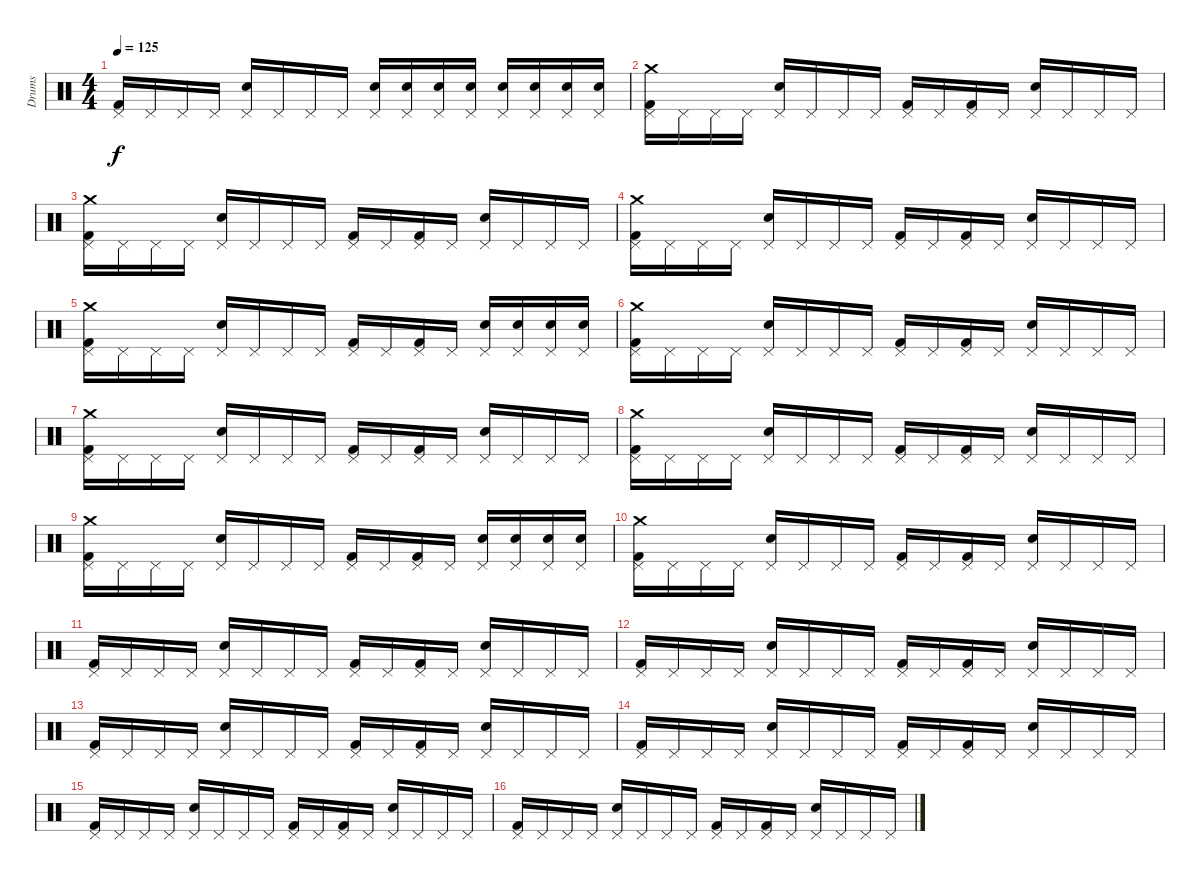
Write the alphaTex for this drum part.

\track ("Drums" "Drums") {instrument percussion}
\staff {score}
\articulation defaults
\ts (4 4)
\tempo 125
\clef neutral
\ks c
("Kick (hit) 2" "Pedal Hi-Hat (hit)").16{dy f} "Pedal Hi-Hat (hit)".16 "Pedal Hi-Hat (hit)".16 "Pedal Hi-Hat (hit)".16 ("Snare (hit) 2" "Pedal Hi-Hat (hit)").16 "Pedal Hi-Hat (hit)".16 "Pedal Hi-Hat (hit)".16 "Pedal Hi-Hat (hit)".16 ("Snare (hit) 2" "Pedal Hi-Hat (hit)").16 ("Snare (hit) 2" "Pedal Hi-Hat (hit)").16 ("Snare (hit) 2" "Pedal Hi-Hat (hit)").16 ("Snare (hit) 2" "Pedal Hi-Hat (hit)").16 ("Snare (hit) 2" "Pedal Hi-Hat (hit)").16 ("Snare (hit) 2" "Pedal Hi-Hat (hit)").16 ("Snare (hit) 2" "Pedal Hi-Hat (hit)").16 ("Snare (hit) 2" "Pedal Hi-Hat (hit)").16 |
("Kick (hit) 2" "Crash medium (hit)" "Pedal Hi-Hat (hit)").16 "Pedal Hi-Hat (hit)".16 "Pedal Hi-Hat (hit)".16 "Pedal Hi-Hat (hit)".16 ("Snare (hit) 2" "Pedal Hi-Hat (hit)").16 "Pedal Hi-Hat (hit)".16 "Pedal Hi-Hat (hit)".16 "Pedal Hi-Hat (hit)".16 ("Kick (hit) 2" "Pedal Hi-Hat (hit)").16 "Pedal Hi-Hat (hit)".16 ("Kick (hit) 2" "Pedal Hi-Hat (hit)").16 "Pedal Hi-Hat (hit)".16 ("Snare (hit) 2" "Pedal Hi-Hat (hit)").16 "Pedal Hi-Hat (hit)".16 "Pedal Hi-Hat (hit)".16 "Pedal Hi-Hat (hit)".16 |
("Pedal Hi-Hat (hit)" "Crash medium (hit)" "Kick (hit) 2").16 "Pedal Hi-Hat (hit)".16 "Pedal Hi-Hat (hit)".16 "Pedal Hi-Hat (hit)".16 ("Pedal Hi-Hat (hit)" "Snare (hit) 2").16 "Pedal Hi-Hat (hit)".16 "Pedal Hi-Hat (hit)".16 "Pedal Hi-Hat (hit)".16 ("Pedal Hi-Hat (hit)" "Kick (hit) 2").16 "Pedal Hi-Hat (hit)".16 ("Pedal Hi-Hat (hit)" "Kick (hit) 2").16 "Pedal Hi-Hat (hit)".16 ("Pedal Hi-Hat (hit)" "Snare (hit) 2").16 "Pedal Hi-Hat (hit)".16 "Pedal Hi-Hat (hit)".16 "Pedal Hi-Hat (hit)".16 |
("Crash medium (hit)" "Pedal Hi-Hat (hit)" "Kick (hit) 2").16 "Pedal Hi-Hat (hit)".16 "Pedal Hi-Hat (hit)".16 "Pedal Hi-Hat (hit)".16 ("Pedal Hi-Hat (hit)" "Snare (hit) 2").16 "Pedal Hi-Hat (hit)".16 "Pedal Hi-Hat (hit)".16 "Pedal Hi-Hat (hit)".16 ("Pedal Hi-Hat (hit)" "Kick (hit) 2").16 "Pedal Hi-Hat (hit)".16 ("Pedal Hi-Hat (hit)" "Kick (hit) 2").16 "Pedal Hi-Hat (hit)".16 ("Pedal Hi-Hat (hit)" "Snare (hit) 2").16 "Pedal Hi-Hat (hit)".16 "Pedal Hi-Hat (hit)".16 "Pedal Hi-Hat (hit)".16 |
("Crash medium (hit)" "Pedal Hi-Hat (hit)" "Kick (hit) 2").16 "Pedal Hi-Hat (hit)".16 "Pedal Hi-Hat (hit)".16 "Pedal Hi-Hat (hit)".16 ("Pedal Hi-Hat (hit)" "Snare (hit) 2").16 "Pedal Hi-Hat (hit)".16 "Pedal Hi-Hat (hit)".16 "Pedal Hi-Hat (hit)".16 ("Pedal Hi-Hat (hit)" "Kick (hit) 2").16 "Pedal Hi-Hat (hit)".16 ("Pedal Hi-Hat (hit)" "Kick (hit) 2").16 "Pedal Hi-Hat (hit)".16 ("Snare (hit) 2" "Pedal Hi-Hat (hit)").16 ("Snare (hit) 2" "Pedal Hi-Hat (hit)").16 ("Snare (hit) 2" "Pedal Hi-Hat (hit)").16 ("Snare (hit) 2" "Pedal Hi-Hat (hit)").16 |
("Crash medium (hit)" "Pedal Hi-Hat (hit)" "Kick (hit) 2").16 "Pedal Hi-Hat (hit)".16 "Pedal Hi-Hat (hit)".16 "Pedal Hi-Hat (hit)".16 ("Pedal Hi-Hat (hit)" "Snare (hit) 2").16 "Pedal Hi-Hat (hit)".16 "Pedal Hi-Hat (hit)".16 "Pedal Hi-Hat (hit)".16 ("Pedal Hi-Hat (hit)" "Kick (hit) 2").16 "Pedal Hi-Hat (hit)".16 ("Pedal Hi-Hat (hit)" "Kick (hit) 2").16 "Pedal Hi-Hat (hit)".16 ("Pedal Hi-Hat (hit)" "Snare (hit) 2").16 "Pedal Hi-Hat (hit)".16 "Pedal Hi-Hat (hit)".16 "Pedal Hi-Hat (hit)".16 |
("Crash medium (hit)" "Pedal Hi-Hat (hit)" "Kick (hit) 2").16 "Pedal Hi-Hat (hit)".16 "Pedal Hi-Hat (hit)".16 "Pedal Hi-Hat (hit)".16 ("Pedal Hi-Hat (hit)" "Snare (hit) 2").16 "Pedal Hi-Hat (hit)".16 "Pedal Hi-Hat (hit)".16 "Pedal Hi-Hat (hit)".16 ("Pedal Hi-Hat (hit)" "Kick (hit) 2").16 "Pedal Hi-Hat (hit)".16 ("Pedal Hi-Hat (hit)" "Kick (hit) 2").16 "Pedal Hi-Hat (hit)".16 ("Pedal Hi-Hat (hit)" "Snare (hit) 2").16 "Pedal Hi-Hat (hit)".16 "Pedal Hi-Hat (hit)".16 "Pedal Hi-Hat (hit)".16 |
("Crash medium (hit)" "Kick (hit) 2" "Pedal Hi-Hat (hit)").16 "Pedal Hi-Hat (hit)".16 "Pedal Hi-Hat (hit)".16 "Pedal Hi-Hat (hit)".16 ("Snare (hit) 2" "Pedal Hi-Hat (hit)").16 "Pedal Hi-Hat (hit)".16 "Pedal Hi-Hat (hit)".16 "Pedal Hi-Hat (hit)".16 ("Kick (hit) 2" "Pedal Hi-Hat (hit)").16 "Pedal Hi-Hat (hit)".16 ("Kick (hit) 2" "Pedal Hi-Hat (hit)").16 "Pedal Hi-Hat (hit)".16 ("Snare (hit) 2" "Pedal Hi-Hat (hit)").16 "Pedal Hi-Hat (hit)".16 "Pedal Hi-Hat (hit)".16 "Pedal Hi-Hat (hit)".16 |
("Crash medium (hit)" "Kick (hit) 2" "Pedal Hi-Hat (hit)").16 "Pedal Hi-Hat (hit)".16 "Pedal Hi-Hat (hit)".16 "Pedal Hi-Hat (hit)".16 ("Snare (hit) 2" "Pedal Hi-Hat (hit)").16 "Pedal Hi-Hat (hit)".16 "Pedal Hi-Hat (hit)".16 "Pedal Hi-Hat (hit)".16 ("Kick (hit) 2" "Pedal Hi-Hat (hit)").16 "Pedal Hi-Hat (hit)".16 ("Kick (hit) 2" "Pedal Hi-Hat (hit)").16 "Pedal Hi-Hat (hit)".16 ("Snare (hit) 2" "Pedal Hi-Hat (hit)").16 ("Snare (hit) 2" "Pedal Hi-Hat (hit)").16 ("Snare (hit) 2" "Pedal Hi-Hat (hit)").16 ("Snare (hit) 2" "Pedal Hi-Hat (hit)").16 |
("Crash medium (hit)" "Pedal Hi-Hat (hit)" "Kick (hit) 2").16 "Pedal Hi-Hat (hit)".16 "Pedal Hi-Hat (hit)".16 "Pedal Hi-Hat (hit)".16 ("Pedal Hi-Hat (hit)" "Snare (hit) 2").16 "Pedal Hi-Hat (hit)".16 "Pedal Hi-Hat (hit)".16 "Pedal Hi-Hat (hit)".16 ("Pedal Hi-Hat (hit)" "Kick (hit) 2").16 "Pedal Hi-Hat (hit)".16 ("Pedal Hi-Hat (hit)" "Kick (hit) 2").16 "Pedal Hi-Hat (hit)".16 ("Pedal Hi-Hat (hit)" "Snare (hit) 2").16 "Pedal Hi-Hat (hit)".16 "Pedal Hi-Hat (hit)".16 "Pedal Hi-Hat (hit)".16 |
("Pedal Hi-Hat (hit)" "Kick (hit) 2").16 "Pedal Hi-Hat (hit)".16 "Pedal Hi-Hat (hit)".16 "Pedal Hi-Hat (hit)".16 ("Pedal Hi-Hat (hit)" "Snare (hit) 2").16 "Pedal Hi-Hat (hit)".16 "Pedal Hi-Hat (hit)".16 "Pedal Hi-Hat (hit)".16 ("Pedal Hi-Hat (hit)" "Kick (hit) 2").16 "Pedal Hi-Hat (hit)".16 ("Pedal Hi-Hat (hit)" "Kick (hit) 2").16 "Pedal Hi-Hat (hit)".16 ("Pedal Hi-Hat (hit)" "Snare (hit) 2").16 "Pedal Hi-Hat (hit)".16 "Pedal Hi-Hat (hit)".16 "Pedal Hi-Hat (hit)".16 |
("Kick (hit) 2" "Pedal Hi-Hat (hit)").16 "Pedal Hi-Hat (hit)".16 "Pedal Hi-Hat (hit)".16 "Pedal Hi-Hat (hit)".16 ("Snare (hit) 2" "Pedal Hi-Hat (hit)").16 "Pedal Hi-Hat (hit)".16 "Pedal Hi-Hat (hit)".16 "Pedal Hi-Hat (hit)".16 ("Kick (hit) 2" "Pedal Hi-Hat (hit)").16 "Pedal Hi-Hat (hit)".16 ("Kick (hit) 2" "Pedal Hi-Hat (hit)").16 "Pedal Hi-Hat (hit)".16 ("Snare (hit) 2" "Pedal Hi-Hat (hit)").16 "Pedal Hi-Hat (hit)".16 "Pedal Hi-Hat (hit)".16 "Pedal Hi-Hat (hit)".16 |
("Kick (hit) 2" "Pedal Hi-Hat (hit)").16 "Pedal Hi-Hat (hit)".16 "Pedal Hi-Hat (hit)".16 "Pedal Hi-Hat (hit)".16 ("Snare (hit) 2" "Pedal Hi-Hat (hit)").16 "Pedal Hi-Hat (hit)".16 "Pedal Hi-Hat (hit)".16 "Pedal Hi-Hat (hit)".16 ("Kick (hit) 2" "Pedal Hi-Hat (hit)").16 "Pedal Hi-Hat (hit)".16 ("Kick (hit) 2" "Pedal Hi-Hat (hit)").16 "Pedal Hi-Hat (hit)".16 ("Snare (hit) 2" "Pedal Hi-Hat (hit)").16 "Pedal Hi-Hat (hit)".16 "Pedal Hi-Hat (hit)".16 "Pedal Hi-Hat (hit)".16 |
("Pedal Hi-Hat (hit)" "Kick (hit) 2").16 "Pedal Hi-Hat (hit)".16 "Pedal Hi-Hat (hit)".16 "Pedal Hi-Hat (hit)".16 ("Pedal Hi-Hat (hit)" "Snare (hit) 2").16 "Pedal Hi-Hat (hit)".16 "Pedal Hi-Hat (hit)".16 "Pedal Hi-Hat (hit)".16 ("Pedal Hi-Hat (hit)" "Kick (hit) 2").16 "Pedal Hi-Hat (hit)".16 ("Pedal Hi-Hat (hit)" "Kick (hit) 2").16 "Pedal Hi-Hat (hit)".16 ("Pedal Hi-Hat (hit)" "Snare (hit) 2").16 "Pedal Hi-Hat (hit)".16 "Pedal Hi-Hat (hit)".16 "Pedal Hi-Hat (hit)".16 |
("Pedal Hi-Hat (hit)" "Kick (hit) 2").16 "Pedal Hi-Hat (hit)".16 "Pedal Hi-Hat (hit)".16 "Pedal Hi-Hat (hit)".16 ("Pedal Hi-Hat (hit)" "Snare (hit) 2").16 "Pedal Hi-Hat (hit)".16 "Pedal Hi-Hat (hit)".16 "Pedal Hi-Hat (hit)".16 ("Pedal Hi-Hat (hit)" "Kick (hit) 2").16 "Pedal Hi-Hat (hit)".16 ("Pedal Hi-Hat (hit)" "Kick (hit) 2").16 "Pedal Hi-Hat (hit)".16 ("Pedal Hi-Hat (hit)" "Snare (hit) 2").16 "Pedal Hi-Hat (hit)".16 "Pedal Hi-Hat (hit)".16 "Pedal Hi-Hat (hit)".16 |
("Kick (hit) 2" "Pedal Hi-Hat (hit)").16 "Pedal Hi-Hat (hit)".16 "Pedal Hi-Hat (hit)".16 "Pedal Hi-Hat (hit)".16 ("Snare (hit) 2" "Pedal Hi-Hat (hit)").16 "Pedal Hi-Hat (hit)".16 "Pedal Hi-Hat (hit)".16 "Pedal Hi-Hat (hit)".16 ("Kick (hit) 2" "Pedal Hi-Hat (hit)").16 "Pedal Hi-Hat (hit)".16 ("Kick (hit) 2" "Pedal Hi-Hat (hit)").16 "Pedal Hi-Hat (hit)".16 ("Snare (hit) 2" "Pedal Hi-Hat (hit)").16 "Pedal Hi-Hat (hit)".16 "Pedal Hi-Hat (hit)".16 "Pedal Hi-Hat (hit)".16
